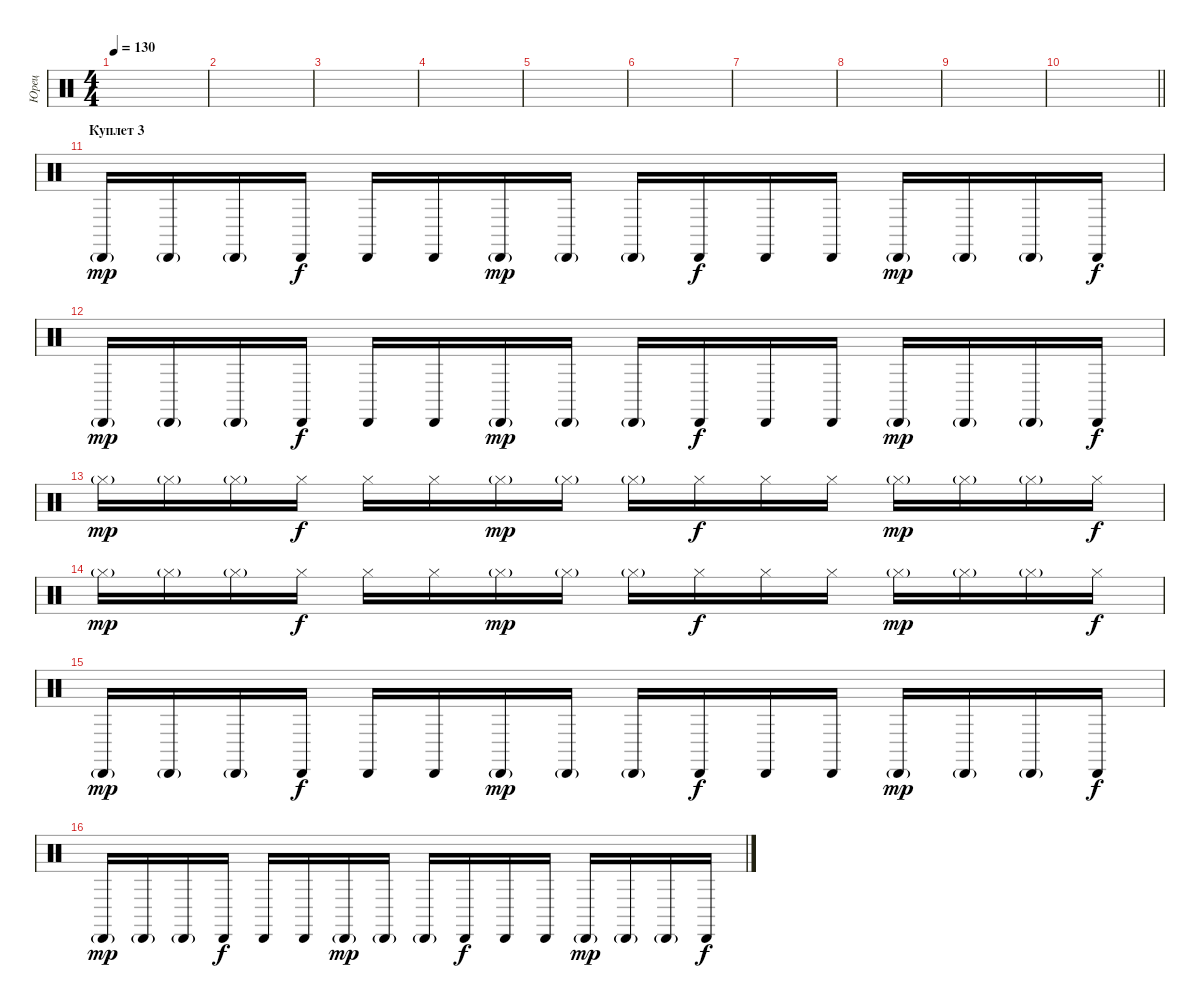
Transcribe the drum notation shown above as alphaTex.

\track ("Юрец" "Юрец") {instrument percussion}
\staff {score}
\articulation defaults
\ts (4 4)
\tempo 130
\clef neutral
\ks c
|
|
|
|
|
|
|
|
|
\barLineRight lightlight
|
\section ("" "Куплет 3")
"Cabasa (hit)"{g}.16{dy mp} "Cabasa (hit)"{g}.16 "Cabasa (hit)"{g}.16 "Cabasa (hit)".16{dy f} "Cabasa (hit)".16 "Cabasa (hit)".16 "Cabasa (hit)"{g}.16{dy mp} "Cabasa (hit)"{g}.16 "Cabasa (hit)"{g}.16 "Cabasa (hit)".16{dy f} "Cabasa (hit)".16 "Cabasa (hit)".16 "Cabasa (hit)"{g}.16{dy mp} "Cabasa (hit)"{g}.16 "Cabasa (hit)"{g}.16 "Cabasa (hit)".16{dy f} |
"Cabasa (hit)"{g}.16{dy mp} "Cabasa (hit)"{g}.16 "Cabasa (hit)"{g}.16 "Cabasa (hit)".16{dy f} "Cabasa (hit)".16 "Cabasa (hit)".16 "Cabasa (hit)"{g}.16{dy mp} "Cabasa (hit)"{g}.16 "Cabasa (hit)"{g}.16 "Cabasa (hit)".16{dy f} "Cabasa (hit)".16 "Cabasa (hit)".16 "Cabasa (hit)"{g}.16{dy mp} "Cabasa (hit)"{g}.16 "Cabasa (hit)"{g}.16 "Cabasa (hit)".16{dy f} |
"Hi-Hat (closed)"{g}.16{dy mp} "Hi-Hat (closed)"{g}.16 "Hi-Hat (closed)"{g}.16 "Hi-Hat (closed)".16{dy f} "Hi-Hat (closed)".16 "Hi-Hat (closed)".16 "Hi-Hat (closed)"{g}.16{dy mp} "Hi-Hat (closed)"{g}.16 "Hi-Hat (closed)"{g}.16 "Hi-Hat (closed)".16{dy f} "Hi-Hat (closed)".16 "Hi-Hat (closed)".16 "Hi-Hat (closed)"{g}.16{dy mp} "Hi-Hat (closed)"{g}.16 "Hi-Hat (closed)"{g}.16 "Hi-Hat (closed)".16{dy f} |
"Hi-Hat (closed)"{g}.16{dy mp} "Hi-Hat (closed)"{g}.16 "Hi-Hat (closed)"{g}.16 "Hi-Hat (closed)".16{dy f} "Hi-Hat (closed)".16 "Hi-Hat (closed)".16 "Hi-Hat (closed)"{g}.16{dy mp} "Hi-Hat (closed)"{g}.16 "Hi-Hat (closed)"{g}.16 "Hi-Hat (closed)".16{dy f} "Hi-Hat (closed)".16 "Hi-Hat (closed)".16 "Hi-Hat (closed)"{g}.16{dy mp} "Hi-Hat (closed)"{g}.16 "Hi-Hat (closed)"{g}.16 "Hi-Hat (closed)".16{dy f} |
"Cabasa (hit)"{g}.16{dy mp} "Cabasa (hit)"{g}.16 "Cabasa (hit)"{g}.16 "Cabasa (hit)".16{dy f} "Cabasa (hit)".16 "Cabasa (hit)".16 "Cabasa (hit)"{g}.16{dy mp} "Cabasa (hit)"{g}.16 "Cabasa (hit)"{g}.16 "Cabasa (hit)".16{dy f} "Cabasa (hit)".16 "Cabasa (hit)".16 "Cabasa (hit)"{g}.16{dy mp} "Cabasa (hit)"{g}.16 "Cabasa (hit)"{g}.16 "Cabasa (hit)".16{dy f} |
"Cabasa (hit)"{g}.16{dy mp} "Cabasa (hit)"{g}.16 "Cabasa (hit)"{g}.16 "Cabasa (hit)".16{dy f} "Cabasa (hit)".16 "Cabasa (hit)".16 "Cabasa (hit)"{g}.16{dy mp} "Cabasa (hit)"{g}.16 "Cabasa (hit)"{g}.16 "Cabasa (hit)".16{dy f} "Cabasa (hit)".16 "Cabasa (hit)".16 "Cabasa (hit)"{g}.16{dy mp} "Cabasa (hit)"{g}.16 "Cabasa (hit)"{g}.16 "Cabasa (hit)".16{dy f}
